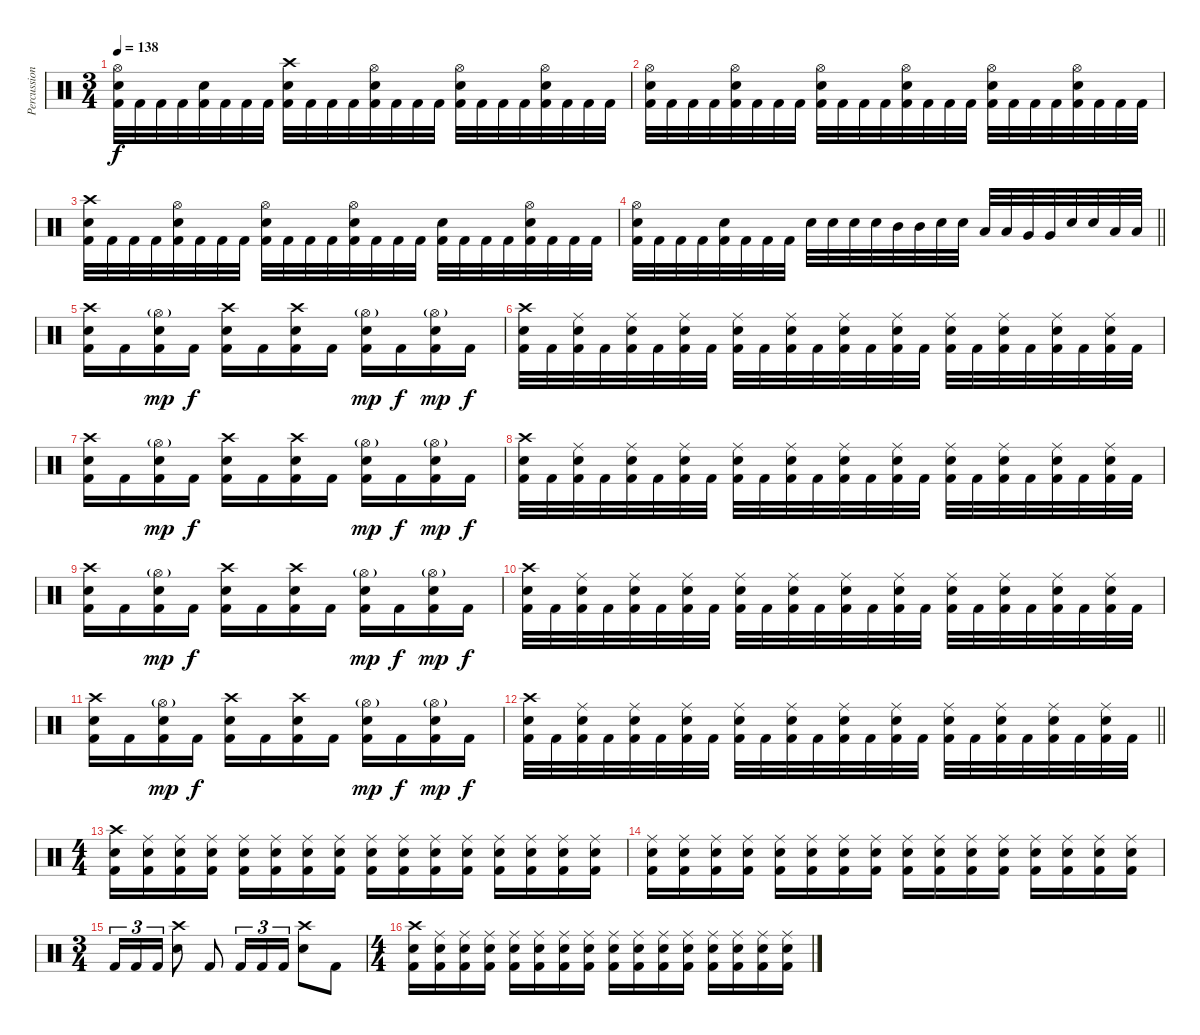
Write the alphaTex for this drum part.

\track ("Percussion" "Percussion") {instrument percussion}
\staff {score}
\articulation defaults
\ts (3 4)
\tempo 138
\clef neutral
\ks c
("Kick (hit) 2" "Electric Snare (hit)" "Hi-Hat (open)").32{dy f} "Kick (hit) 2".32 "Kick (hit) 2".32 "Kick (hit) 2".32 ("Kick (hit) 2" "Electric Snare (hit)").32 "Kick (hit) 2".32 "Kick (hit) 2".32 "Kick (hit) 2".32 ("Kick (hit) 2" "Electric Snare (hit)" "Crash high (hit)").32 "Kick (hit) 2".32 "Kick (hit) 2".32 "Kick (hit) 2".32 ("Kick (hit) 2" "Electric Snare (hit)" "Hi-Hat (open)").32 "Kick (hit) 2".32 "Kick (hit) 2".32 "Kick (hit) 2".32 ("Kick (hit) 2" "Electric Snare (hit)" "Hi-Hat (open)").32 "Kick (hit) 2".32 "Kick (hit) 2".32 "Kick (hit) 2".32 ("Kick (hit) 2" "Electric Snare (hit)" "Hi-Hat (open)").32 "Kick (hit) 2".32 "Kick (hit) 2".32 "Kick (hit) 2".32 |
("Kick (hit) 2" "Electric Snare (hit)" "Hi-Hat (open)").32 "Kick (hit) 2".32 "Kick (hit) 2".32 "Kick (hit) 2".32 ("Kick (hit) 2" "Electric Snare (hit)" "Hi-Hat (open)").32 "Kick (hit) 2".32 "Kick (hit) 2".32 "Kick (hit) 2".32 ("Kick (hit) 2" "Electric Snare (hit)" "Hi-Hat (open)").32 "Kick (hit) 2".32 "Kick (hit) 2".32 "Kick (hit) 2".32 ("Kick (hit) 2" "Electric Snare (hit)" "Hi-Hat (open)").32 "Kick (hit) 2".32 "Kick (hit) 2".32 "Kick (hit) 2".32 ("Kick (hit) 2" "Electric Snare (hit)" "Hi-Hat (open)").32 "Kick (hit) 2".32 "Kick (hit) 2".32 "Kick (hit) 2".32 ("Kick (hit) 2" "Electric Snare (hit)" "Hi-Hat (open)").32 "Kick (hit) 2".32 "Kick (hit) 2".32 "Kick (hit) 2".32 |
("Kick (hit) 2" "Electric Snare (hit)" "Crash high (hit)").32 "Kick (hit) 2".32 "Kick (hit) 2".32 "Kick (hit) 2".32 ("Kick (hit) 2" "Electric Snare (hit)" "Hi-Hat (open)").32 "Kick (hit) 2".32 "Kick (hit) 2".32 "Kick (hit) 2".32 ("Kick (hit) 2" "Electric Snare (hit)" "Hi-Hat (open)").32 "Kick (hit) 2".32 "Kick (hit) 2".32 "Kick (hit) 2".32 ("Kick (hit) 2" "Electric Snare (hit)" "Hi-Hat (open)").32 "Kick (hit) 2".32 "Kick (hit) 2".32 "Kick (hit) 2".32 ("Kick (hit) 2" "Electric Snare (hit)").32 "Kick (hit) 2".32 "Kick (hit) 2".32 "Kick (hit) 2".32 ("Kick (hit) 2" "Electric Snare (hit)" "Hi-Hat (open)").32 "Kick (hit) 2".32 "Kick (hit) 2".32 "Kick (hit) 2".32 |
\barLineRight lightlight
("Kick (hit) 2" "Electric Snare (hit)" "Hi-Hat (open)").32 "Kick (hit) 2".32 "Kick (hit) 2".32 "Kick (hit) 2".32 ("Kick (hit) 2" "Electric Snare (hit)").32 "Kick (hit) 2".32 "Kick (hit) 2".32 "Kick (hit) 2".32 "Electric Snare (hit)".32 "Electric Snare (hit)".32 "Electric Snare (hit)".32 "Electric Snare (hit)".32 "Mid Tom (hit)".32 "Mid Tom (hit)".32 "Electric Snare (hit)".32 "Electric Snare (hit)".32 "Low Tom (hit)".32 "Low Tom (hit)".32 "Very Low Tom (hit)".32 "Very Low Tom (hit)".32 "Electric Snare (hit)".32 "Electric Snare (hit)".32 "Low Floor Tom (hit)".32 "Low Floor Tom (hit)".32 |
\section ("" "")
("Kick (hit) 2" "Crash high (hit)" "Electric Snare (hit)").16 "Kick (hit) 2".16 ("Kick (hit) 2" "Hi-Hat (open)"{g} "Electric Snare (hit)").16{dy mp} "Kick (hit) 2".16{dy f} ("Kick (hit) 2" "Crash high (hit)" "Electric Snare (hit)").16 "Kick (hit) 2".16 ("Kick (hit) 2" "Crash high (hit)" "Electric Snare (hit)").16 "Kick (hit) 2".16 ("Kick (hit) 2" "Hi-Hat (open)"{g} "Electric Snare (hit)").16{dy mp} "Kick (hit) 2".16{dy f} ("Kick (hit) 2" "Hi-Hat (open)"{g} "Electric Snare (hit)").16{dy mp} "Kick (hit) 2".16{dy f} |
("Kick (hit) 2" "Electric Snare (hit)" "Crash high (hit)").32 "Kick (hit) 2".32 ("Kick (hit) 2" "Electric Snare (hit)" "Ride (middle)").32 "Kick (hit) 2".32 ("Kick (hit) 2" "Electric Snare (hit)" "Ride (middle)").32 "Kick (hit) 2".32 ("Kick (hit) 2" "Electric Snare (hit)" "Ride (middle)").32 "Kick (hit) 2".32 ("Kick (hit) 2" "Electric Snare (hit)" "Ride (middle)").32 "Kick (hit) 2".32 ("Kick (hit) 2" "Electric Snare (hit)" "Ride (middle)").32 "Kick (hit) 2".32 ("Kick (hit) 2" "Electric Snare (hit)" "Ride (middle)").32 "Kick (hit) 2".32 ("Kick (hit) 2" "Electric Snare (hit)" "Ride (middle)").32 "Kick (hit) 2".32 ("Kick (hit) 2" "Electric Snare (hit)" "Ride (middle)").32 "Kick (hit) 2".32 ("Kick (hit) 2" "Electric Snare (hit)" "Ride (middle)").32 "Kick (hit) 2".32 ("Kick (hit) 2" "Electric Snare (hit)" "Ride (middle)").32 "Kick (hit) 2".32 ("Kick (hit) 2" "Electric Snare (hit)" "Ride (middle)").32 "Kick (hit) 2".32 |
("Kick (hit) 2" "Crash high (hit)" "Electric Snare (hit)").16 "Kick (hit) 2".16 ("Kick (hit) 2" "Hi-Hat (open)"{g} "Electric Snare (hit)").16{dy mp} "Kick (hit) 2".16{dy f} ("Kick (hit) 2" "Crash high (hit)" "Electric Snare (hit)").16 "Kick (hit) 2".16 ("Kick (hit) 2" "Crash high (hit)" "Electric Snare (hit)").16 "Kick (hit) 2".16 ("Kick (hit) 2" "Hi-Hat (open)"{g} "Electric Snare (hit)").16{dy mp} "Kick (hit) 2".16{dy f} ("Kick (hit) 2" "Hi-Hat (open)"{g} "Electric Snare (hit)").16{dy mp} "Kick (hit) 2".16{dy f} |
("Kick (hit) 2" "Electric Snare (hit)" "Crash high (hit)").32 "Kick (hit) 2".32 ("Kick (hit) 2" "Electric Snare (hit)" "Ride (middle)").32 "Kick (hit) 2".32 ("Kick (hit) 2" "Electric Snare (hit)" "Ride (middle)").32 "Kick (hit) 2".32 ("Kick (hit) 2" "Electric Snare (hit)" "Ride (middle)").32 "Kick (hit) 2".32 ("Kick (hit) 2" "Electric Snare (hit)" "Ride (middle)").32 "Kick (hit) 2".32 ("Kick (hit) 2" "Electric Snare (hit)" "Ride (middle)").32 "Kick (hit) 2".32 ("Kick (hit) 2" "Electric Snare (hit)" "Ride (middle)").32 "Kick (hit) 2".32 ("Kick (hit) 2" "Electric Snare (hit)" "Ride (middle)").32 "Kick (hit) 2".32 ("Kick (hit) 2" "Electric Snare (hit)" "Ride (middle)").32 "Kick (hit) 2".32 ("Kick (hit) 2" "Electric Snare (hit)" "Ride (middle)").32 "Kick (hit) 2".32 ("Kick (hit) 2" "Electric Snare (hit)" "Ride (middle)").32 "Kick (hit) 2".32 ("Kick (hit) 2" "Electric Snare (hit)" "Ride (middle)").32 "Kick (hit) 2".32 |
("Kick (hit) 2" "Crash high (hit)" "Electric Snare (hit)").16 "Kick (hit) 2".16 ("Kick (hit) 2" "Hi-Hat (open)"{g} "Electric Snare (hit)").16{dy mp} "Kick (hit) 2".16{dy f} ("Kick (hit) 2" "Crash high (hit)" "Electric Snare (hit)").16 "Kick (hit) 2".16 ("Kick (hit) 2" "Crash high (hit)" "Electric Snare (hit)").16 "Kick (hit) 2".16 ("Kick (hit) 2" "Hi-Hat (open)"{g} "Electric Snare (hit)").16{dy mp} "Kick (hit) 2".16{dy f} ("Kick (hit) 2" "Hi-Hat (open)"{g} "Electric Snare (hit)").16{dy mp} "Kick (hit) 2".16{dy f} |
("Kick (hit) 2" "Electric Snare (hit)" "Crash high (hit)").32 "Kick (hit) 2".32 ("Kick (hit) 2" "Electric Snare (hit)" "Ride (middle)").32 "Kick (hit) 2".32 ("Kick (hit) 2" "Electric Snare (hit)" "Ride (middle)").32 "Kick (hit) 2".32 ("Kick (hit) 2" "Electric Snare (hit)" "Ride (middle)").32 "Kick (hit) 2".32 ("Kick (hit) 2" "Electric Snare (hit)" "Ride (middle)").32 "Kick (hit) 2".32 ("Kick (hit) 2" "Electric Snare (hit)" "Ride (middle)").32 "Kick (hit) 2".32 ("Kick (hit) 2" "Electric Snare (hit)" "Ride (middle)").32 "Kick (hit) 2".32 ("Kick (hit) 2" "Electric Snare (hit)" "Ride (middle)").32 "Kick (hit) 2".32 ("Kick (hit) 2" "Electric Snare (hit)" "Ride (middle)").32 "Kick (hit) 2".32 ("Kick (hit) 2" "Electric Snare (hit)" "Ride (middle)").32 "Kick (hit) 2".32 ("Kick (hit) 2" "Electric Snare (hit)" "Ride (middle)").32 "Kick (hit) 2".32 ("Kick (hit) 2" "Electric Snare (hit)" "Ride (middle)").32 "Kick (hit) 2".32 |
("Kick (hit) 2" "Crash high (hit)" "Electric Snare (hit)").16 "Kick (hit) 2".16 ("Kick (hit) 2" "Hi-Hat (open)"{g} "Electric Snare (hit)").16{dy mp} "Kick (hit) 2".16{dy f} ("Kick (hit) 2" "Crash high (hit)" "Electric Snare (hit)").16 "Kick (hit) 2".16 ("Kick (hit) 2" "Crash high (hit)" "Electric Snare (hit)").16 "Kick (hit) 2".16 ("Kick (hit) 2" "Hi-Hat (open)"{g} "Electric Snare (hit)").16{dy mp} "Kick (hit) 2".16{dy f} ("Kick (hit) 2" "Hi-Hat (open)"{g} "Electric Snare (hit)").16{dy mp} "Kick (hit) 2".16{dy f} |
\barLineRight lightlight
("Kick (hit) 2" "Electric Snare (hit)" "Crash high (hit)").32 "Kick (hit) 2".32 ("Kick (hit) 2" "Electric Snare (hit)" "Ride (middle)").32 "Kick (hit) 2".32 ("Kick (hit) 2" "Electric Snare (hit)" "Ride (middle)").32 "Kick (hit) 2".32 ("Kick (hit) 2" "Electric Snare (hit)" "Ride (middle)").32 "Kick (hit) 2".32 ("Kick (hit) 2" "Electric Snare (hit)" "Ride (middle)").32 "Kick (hit) 2".32 ("Kick (hit) 2" "Electric Snare (hit)" "Ride (middle)").32 "Kick (hit) 2".32 ("Kick (hit) 2" "Electric Snare (hit)" "Ride (middle)").32 "Kick (hit) 2".32 ("Kick (hit) 2" "Electric Snare (hit)" "Ride (middle)").32 "Kick (hit) 2".32 ("Kick (hit) 2" "Electric Snare (hit)" "Ride (middle)").32 "Kick (hit) 2".32 ("Kick (hit) 2" "Electric Snare (hit)" "Ride (middle)").32 "Kick (hit) 2".32 ("Kick (hit) 2" "Electric Snare (hit)" "Ride (middle)").32 "Kick (hit) 2".32 ("Kick (hit) 2" "Electric Snare (hit)" "Ride (middle)").32 "Kick (hit) 2".32 |
\ts (4 4)
\section ("" "")
("Kick (hit) 2" "Electric Snare (hit)" "Crash high (hit)").16 ("Kick (hit) 2" "Electric Snare (hit)" "Ride (middle)").16 ("Kick (hit) 2" "Electric Snare (hit)" "Ride (middle)").16 ("Kick (hit) 2" "Electric Snare (hit)" "Ride (middle)").16 ("Kick (hit) 2" "Electric Snare (hit)" "Ride (middle)").16 ("Kick (hit) 2" "Electric Snare (hit)" "Ride (middle)").16 ("Kick (hit) 2" "Electric Snare (hit)" "Ride (middle)").16 ("Kick (hit) 2" "Electric Snare (hit)" "Ride (middle)").16 ("Kick (hit) 2" "Electric Snare (hit)" "Ride (middle)").16 ("Kick (hit) 2" "Electric Snare (hit)" "Ride (middle)").16 ("Kick (hit) 2" "Electric Snare (hit)" "Ride (middle)").16 ("Kick (hit) 2" "Electric Snare (hit)" "Ride (middle)").16 ("Kick (hit) 2" "Electric Snare (hit)" "Ride (middle)").16 ("Kick (hit) 2" "Electric Snare (hit)" "Ride (middle)").16 ("Kick (hit) 2" "Electric Snare (hit)" "Ride (middle)").16 ("Kick (hit) 2" "Electric Snare (hit)" "Ride (middle)").16 |
("Kick (hit) 2" "Electric Snare (hit)" "Ride (middle)").16 ("Kick (hit) 2" "Electric Snare (hit)" "Ride (middle)").16 ("Kick (hit) 2" "Electric Snare (hit)" "Ride (middle)").16 ("Kick (hit) 2" "Electric Snare (hit)" "Ride (middle)").16 ("Kick (hit) 2" "Electric Snare (hit)" "Ride (middle)").16 ("Kick (hit) 2" "Electric Snare (hit)" "Ride (middle)").16 ("Kick (hit) 2" "Electric Snare (hit)" "Ride (middle)").16 ("Kick (hit) 2" "Electric Snare (hit)" "Ride (middle)").16 ("Kick (hit) 2" "Electric Snare (hit)" "Ride (middle)").16 ("Kick (hit) 2" "Electric Snare (hit)" "Ride (middle)").16 ("Kick (hit) 2" "Electric Snare (hit)" "Ride (middle)").16 ("Kick (hit) 2" "Electric Snare (hit)" "Ride (middle)").16 ("Kick (hit) 2" "Electric Snare (hit)" "Ride (middle)").16 ("Kick (hit) 2" "Electric Snare (hit)" "Ride (middle)").16 ("Kick (hit) 2" "Electric Snare (hit)" "Ride (middle)").16 ("Kick (hit) 2" "Electric Snare (hit)" "Ride (middle)").16 |
\ts (3 4)
"Kick (hit) 2".16{tu (3 2)} "Kick (hit) 2".16{tu (3 2)} "Kick (hit) 2".16{tu (3 2)} ("Electric Snare (hit)" "Crash high (hit)").8 "Kick (hit) 2".8 "Kick (hit) 2".16{tu (3 2)} "Kick (hit) 2".16{tu (3 2)} "Kick (hit) 2".16{tu (3 2)} ("Electric Snare (hit)" "Crash high (hit)").8 "Kick (hit) 2".8 |
\ts (4 4)
("Kick (hit) 2" "Electric Snare (hit)" "Crash high (hit)").16 ("Kick (hit) 2" "Electric Snare (hit)" "Ride (middle)").16 ("Kick (hit) 2" "Electric Snare (hit)" "Ride (middle)").16 ("Kick (hit) 2" "Electric Snare (hit)" "Ride (middle)").16 ("Kick (hit) 2" "Electric Snare (hit)" "Ride (middle)").16 ("Kick (hit) 2" "Electric Snare (hit)" "Ride (middle)").16 ("Kick (hit) 2" "Electric Snare (hit)" "Ride (middle)").16 ("Kick (hit) 2" "Electric Snare (hit)" "Ride (middle)").16 ("Kick (hit) 2" "Electric Snare (hit)" "Ride (middle)").16 ("Kick (hit) 2" "Electric Snare (hit)" "Ride (middle)").16 ("Kick (hit) 2" "Electric Snare (hit)" "Ride (middle)").16 ("Kick (hit) 2" "Electric Snare (hit)" "Ride (middle)").16 ("Kick (hit) 2" "Electric Snare (hit)" "Ride (middle)").16 ("Kick (hit) 2" "Electric Snare (hit)" "Ride (middle)").16 ("Kick (hit) 2" "Electric Snare (hit)" "Ride (middle)").16 ("Kick (hit) 2" "Electric Snare (hit)" "Ride (middle)").16
